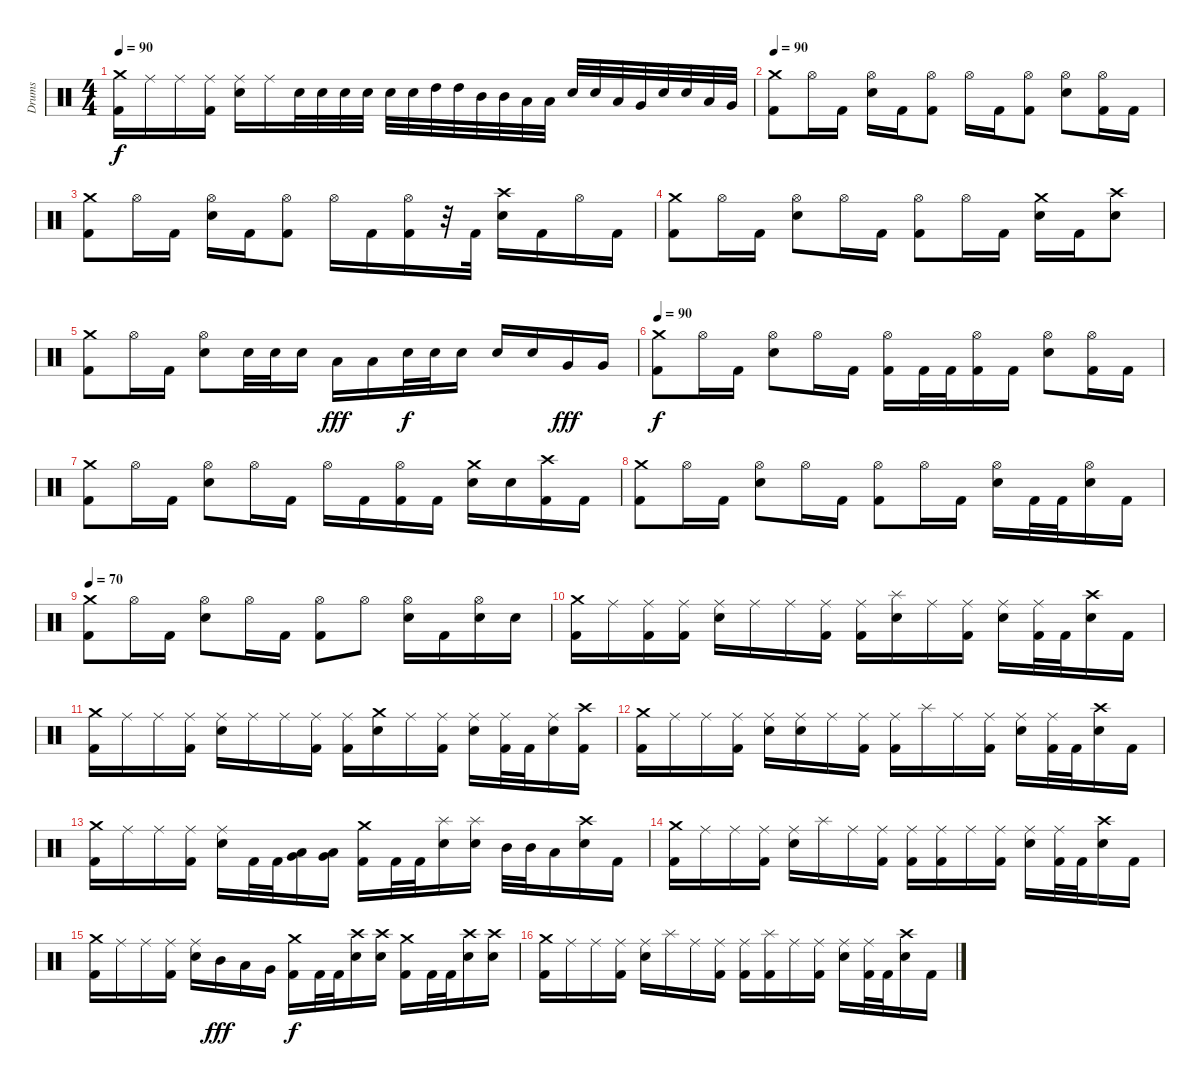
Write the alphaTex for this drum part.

\track ("Drums" "Drums") {instrument percussion}
\staff {score}
\articulation defaults
\ts (4 4)
\tempo 90
\clef neutral
\ks c
("Kick (hit) 2" "Crash medium (hit)").16{dy f} "Ride (middle)".16 "Ride (middle)".16 ("Kick (hit) 2" "Ride (middle)").16 ("Electric Snare (hit)" "Ride (middle)").16 "Ride (middle)".16 "Electric Snare (hit)".32 "Electric Snare (hit)".32 "Electric Snare (hit)".32 "Electric Snare (hit)".32 "Electric Snare (hit)".32 "Electric Snare (hit)".32 "High Tom (hit)".32 "High Tom (hit)".32 "Mid Tom (hit)".32 "Mid Tom (hit)".32 "Low Tom (hit)".32 "Low Tom (hit)".32 "Electric Snare (hit)".32 "Electric Snare (hit)".32 "Low Tom (hit)".32 "Very Low Tom (hit)".32 "Electric Snare (hit)".32 "Electric Snare (hit)".32 "Low Tom (hit)".32 "Very Low Tom (hit)".32 |
\tempo 90
("Kick (hit) 2" "Crash medium (hit)").8 "Hi-Hat (open)".16 "Kick (hit) 2".16 ("Electric Snare (hit)" "Hi-Hat (open)").16 "Kick (hit) 2".16 ("Kick (hit) 2" "Hi-Hat (open)").8 "Hi-Hat (open)".16 "Kick (hit) 2".16 ("Kick (hit) 2" "Hi-Hat (open)").8 ("Electric Snare (hit)" "Hi-Hat (open)").8 ("Kick (hit) 2" "Hi-Hat (open)").16 "Kick (hit) 2".16 |
("Kick (hit) 2" "Crash medium (hit)").8 "Hi-Hat (open)".16 "Kick (hit) 2".16 ("Electric Snare (hit)" "Hi-Hat (open)").16 "Kick (hit) 2".16 ("Kick (hit) 2" "Hi-Hat (open)").8 "Hi-Hat (open)".16 "Kick (hit) 2".16 ("Kick (hit) 2" "Hi-Hat (open)").16 r.32 "Kick (hit) 2".32 ("Electric Snare (hit)" "Crash high (hit)").16 "Kick (hit) 2".16 "Hi-Hat (open)".16 "Kick (hit) 2".16 |
("Kick (hit) 2" "Crash medium (hit)").8 "Hi-Hat (open)".16 "Kick (hit) 2".16 ("Electric Snare (hit)" "Hi-Hat (open)").8 "Hi-Hat (open)".16 "Kick (hit) 2".16 ("Kick (hit) 2" "Hi-Hat (open)").8 "Hi-Hat (open)".16 "Kick (hit) 2".16 ("Electric Snare (hit)" "Crash medium (hit)").16 "Kick (hit) 2".16 ("Electric Snare (hit)" "Crash high (hit)").8 |
("Kick (hit) 2" "Crash medium (hit)").8 "Hi-Hat (open)".16 "Kick (hit) 2".16 ("Electric Snare (hit)" "Hi-Hat (open)").8 "Electric Snare (hit)".32 "Electric Snare (hit)".32 "Electric Snare (hit)".16 "Low Tom (hit)".16{dy fff} "Low Tom (hit)".16 "Electric Snare (hit)".32{dy f} "Electric Snare (hit)".32 "Electric Snare (hit)".16 "Electric Snare (hit)".16 "Electric Snare (hit)".16 "Very Low Tom (hit)".16{dy fff} "Very Low Tom (hit)".16 |
\tempo 90
("Kick (hit) 2" "Crash medium (hit)").8{dy f} "Hi-Hat (open)".16 "Kick (hit) 2".16 ("Electric Snare (hit)" "Hi-Hat (open)").8 "Hi-Hat (open)".16 "Kick (hit) 2".16 ("Kick (hit) 2" "Hi-Hat (open)").16 "Kick (hit) 2".32 "Kick (hit) 2".32 ("Kick (hit) 2" "Hi-Hat (open)").16 "Kick (hit) 2".16 ("Electric Snare (hit)" "Hi-Hat (open)").8 ("Kick (hit) 2" "Hi-Hat (open)").16 "Kick (hit) 2".16 |
("Kick (hit) 2" "Crash medium (hit)").8 "Hi-Hat (open)".16 "Kick (hit) 2".16 ("Electric Snare (hit)" "Hi-Hat (open)").8 "Hi-Hat (open)".16 "Kick (hit) 2".16 "Hi-Hat (open)".16 "Kick (hit) 2".16 ("Kick (hit) 2" "Hi-Hat (open)").16 "Kick (hit) 2".16 ("Electric Snare (hit)" "Crash medium (hit)").16 "Electric Snare (hit)".16 ("Kick (hit) 2" "Crash high (hit)").16 "Kick (hit) 2".16 |
("Kick (hit) 2" "Crash medium (hit)").8 "Hi-Hat (open)".16 "Kick (hit) 2".16 ("Electric Snare (hit)" "Hi-Hat (open)").8 "Hi-Hat (open)".16 "Kick (hit) 2".16 ("Kick (hit) 2" "Hi-Hat (open)").8 "Hi-Hat (open)".16 "Kick (hit) 2".16 ("Electric Snare (hit)" "Hi-Hat (open)").16 "Kick (hit) 2".32 "Kick (hit) 2".32 ("Electric Snare (hit)" "Hi-Hat (open)").16 "Kick (hit) 2".16 |
\tempo 70
("Kick (hit) 2" "Crash medium (hit)").8 "Hi-Hat (open)".16 "Kick (hit) 2".16 ("Electric Snare (hit)" "Hi-Hat (open)").8 "Hi-Hat (open)".16 "Kick (hit) 2".16 ("Kick (hit) 2" "Hi-Hat (open)").8 "Hi-Hat (open)".8 ("Electric Snare (hit)" "Hi-Hat (open)").16 "Kick (hit) 2".16 ("Electric Snare (hit)" "Hi-Hat (open)").16 "Electric Snare (hit)".16 |
("Kick (hit) 2" "Crash medium (hit)").16 "Ride (middle)".16 ("Kick (hit) 2" "Ride (middle)").16 ("Kick (hit) 2" "Ride (middle)").16 ("Electric Snare (hit)" "Ride (middle)").16 "Ride (middle)".16 "Ride (middle)".16 ("Kick (hit) 2" "Ride (middle)").16 ("Kick (hit) 2" "Ride (middle)").16 ("Electric Snare (hit)" "Splash (hit)").16 "Ride (middle)".16 ("Kick (hit) 2" "Ride (middle)").16 ("Electric Snare (hit)" "Ride (middle)").16 ("Kick (hit) 2" "Ride (middle)").32 "Kick (hit) 2".32 ("Electric Snare (hit)" "Crash high (hit)").16 "Kick (hit) 2".16 |
("Kick (hit) 2" "Crash medium (hit)").16 "Ride (middle)".16 "Ride (middle)".16 ("Kick (hit) 2" "Ride (middle)").16 ("Electric Snare (hit)" "Ride (middle)").16 "Ride (middle)".16 "Ride (middle)".16 ("Kick (hit) 2" "Ride (middle)").16 ("Kick (hit) 2" "Ride (middle)").16 ("Electric Snare (hit)" "Crash medium (hit)").16 "Ride (middle)".16 ("Kick (hit) 2" "Ride (middle)").16 ("Electric Snare (hit)" "Ride (middle)").16 ("Kick (hit) 2" "Ride (middle)").32 "Kick (hit) 2".32 ("Electric Snare (hit)" "Ride (middle)").16 ("Kick (hit) 2" "Crash high (hit)").16 |
("Kick (hit) 2" "Crash medium (hit)").16 "Ride (middle)".16 "Ride (middle)".16 ("Kick (hit) 2" "Ride (middle)").16 ("Electric Snare (hit)" "Ride (middle)").16 ("Electric Snare (hit)" "Ride (middle)").16 "Ride (middle)".16 ("Kick (hit) 2" "Ride (middle)").16 ("Kick (hit) 2" "Ride (middle)").16 "Splash (hit)".16 "Ride (middle)".16 ("Kick (hit) 2" "Ride (middle)").16 ("Electric Snare (hit)" "Ride (middle)").16 ("Kick (hit) 2" "Ride (middle)").32 "Kick (hit) 2".32 ("Electric Snare (hit)" "Crash high (hit)").16 "Kick (hit) 2".16 |
("Kick (hit) 2" "Crash medium (hit)").16 "Ride (middle)".16 "Ride (middle)".16 ("Kick (hit) 2" "Ride (middle)").16 ("Electric Snare (hit)" "Ride (middle)").16 "Kick (hit) 2".32 "Kick (hit) 2".32 ("Low Tom (hit)" "Very Low Tom (hit)").16 ("Low Tom (hit)" "Very Low Tom (hit)").16 ("Kick (hit) 2" "Crash medium (hit)").16 "Kick (hit) 2".32 "Kick (hit) 2".32 ("Electric Snare (hit)" "Splash (hit)").16 ("Electric Snare (hit)" "Splash (hit)").16 "Mid Tom (hit)".32 "Mid Tom (hit)".32 "Low Tom (hit)".16 ("Electric Snare (hit)" "Crash high (hit)").16 "Kick (hit) 2".16 |
("Kick (hit) 2" "Crash medium (hit)").16 "Ride (middle)".16 "Ride (middle)".16 ("Kick (hit) 2" "Ride (middle)").16 ("Electric Snare (hit)" "Ride (middle)").16 "Splash (hit)".16 "Ride (middle)".16 ("Kick (hit) 2" "Ride (middle)").16 ("Kick (hit) 2" "Ride (middle)").16 ("Kick (hit) 2" "Ride (middle)").16 "Ride (middle)".16 ("Kick (hit) 2" "Ride (middle)").16 ("Electric Snare (hit)" "Ride (middle)").16 ("Kick (hit) 2" "Ride (middle)").32 "Kick (hit) 2".32 ("Electric Snare (hit)" "Crash high (hit)").16 "Kick (hit) 2".16 |
("Kick (hit) 2" "Crash medium (hit)").16 "Ride (middle)".16 "Ride (middle)".16 ("Kick (hit) 2" "Ride (middle)").16 ("Electric Snare (hit)" "Ride (middle)").16 "Mid Tom (hit)".16{dy fff} "Low Tom (hit)".16 "Very Low Tom (hit)".16 ("Kick (hit) 2" "Crash medium (hit)").16{dy f} "Kick (hit) 2".32 "Kick (hit) 2".32 ("Electric Snare (hit)" "Crash high (hit)").16 ("Electric Snare (hit)" "Crash high (hit)").16 ("Kick (hit) 2" "Crash medium (hit)").16 "Kick (hit) 2".32 "Kick (hit) 2".32 ("Electric Snare (hit)" "Crash high (hit)").16 ("Electric Snare (hit)" "Crash high (hit)").16 |
("Kick (hit) 2" "Crash medium (hit)").16 "Ride (middle)".16 "Ride (middle)".16 ("Kick (hit) 2" "Ride (middle)").16 ("Electric Snare (hit)" "Ride (middle)").16 "Splash (hit)".16 "Ride (middle)".16 ("Kick (hit) 2" "Ride (middle)").16 ("Kick (hit) 2" "Ride (middle)").16 ("Kick (hit) 2" "Splash (hit)").16 "Ride (middle)".16 ("Kick (hit) 2" "Ride (middle)").16 ("Electric Snare (hit)" "Ride (middle)").16 ("Kick (hit) 2" "Ride (middle)").32 "Kick (hit) 2".32 ("Electric Snare (hit)" "Crash high (hit)").16 "Kick (hit) 2".16
